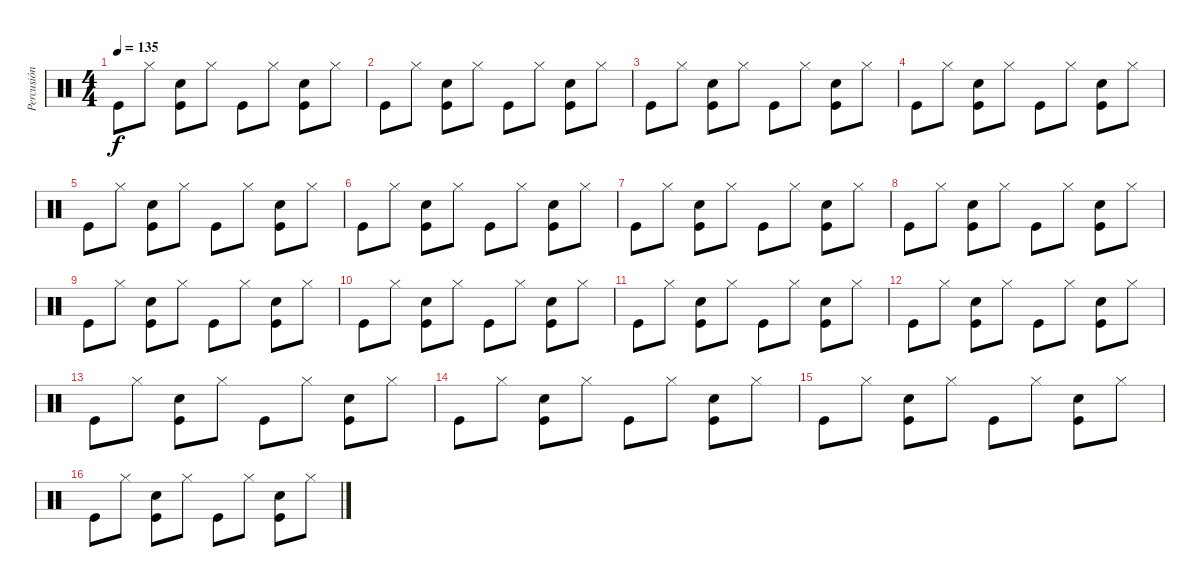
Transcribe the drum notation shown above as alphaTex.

\track ("Percusión" "Percusión") {instrument percussion}
\staff {score}
\articulation defaults
\ts (4 4)
\tempo 135
\clef neutral
\ks c "Kick (hit)".8{dy f} "Hi-Hat (closed)".8
("Hand Clap (hit)" "Kick (hit)").8 "Hi-Hat (closed)".8 "Kick (hit)".8 "Hi-Hat (closed)".8 ("Hand Clap (hit)" "Kick (hit)").8 "Hi-Hat (closed)".8 |
"Kick (hit)".8 "Hi-Hat (closed)".8 ("Hand Clap (hit)" "Kick (hit)").8 "Hi-Hat (closed)".8 "Kick (hit)".8 "Hi-Hat (closed)".8 ("Hand Clap (hit)" "Kick (hit)").8 "Hi-Hat (closed)".8 |
"Kick (hit)".8 "Hi-Hat (closed)".8 ("Hand Clap (hit)" "Kick (hit)").8 "Hi-Hat (closed)".8 "Kick (hit)".8 "Hi-Hat (closed)".8 ("Hand Clap (hit)" "Kick (hit)").8 "Hi-Hat (closed)".8 |
"Kick (hit)".8 "Hi-Hat (closed)".8 ("Hand Clap (hit)" "Kick (hit)").8 "Hi-Hat (closed)".8 "Kick (hit)".8 "Hi-Hat (closed)".8 ("Hand Clap (hit)" "Kick (hit)").8 "Hi-Hat (closed)".8 |
"Kick (hit)".8 "Hi-Hat (closed)".8 ("Hand Clap (hit)" "Kick (hit)").8 "Hi-Hat (closed)".8 "Kick (hit)".8 "Hi-Hat (closed)".8 ("Hand Clap (hit)" "Kick (hit)").8 "Hi-Hat (closed)".8 |
"Kick (hit)".8 "Hi-Hat (closed)".8 ("Hand Clap (hit)" "Kick (hit)").8 "Hi-Hat (closed)".8 "Kick (hit)".8 "Hi-Hat (closed)".8 ("Hand Clap (hit)" "Kick (hit)").8 "Hi-Hat (closed)".8 |
"Kick (hit)".8 "Hi-Hat (closed)".8 ("Hand Clap (hit)" "Kick (hit)").8 "Hi-Hat (closed)".8 "Kick (hit)".8 "Hi-Hat (closed)".8 ("Hand Clap (hit)" "Kick (hit)").8 "Hi-Hat (closed)".8 |
"Kick (hit)".8 "Hi-Hat (closed)".8 ("Hand Clap (hit)" "Kick (hit)").8 "Hi-Hat (closed)".8 "Kick (hit)".8 "Hi-Hat (closed)".8 ("Hand Clap (hit)" "Kick (hit)").8 "Hi-Hat (closed)".8 |
"Kick (hit)".8 "Hi-Hat (closed)".8 ("Hand Clap (hit)" "Kick (hit)").8 "Hi-Hat (closed)".8 "Kick (hit)".8 "Hi-Hat (closed)".8 ("Hand Clap (hit)" "Kick (hit)").8 "Hi-Hat (closed)".8 |
"Kick (hit)".8 "Hi-Hat (closed)".8 ("Hand Clap (hit)" "Kick (hit)").8 "Hi-Hat (closed)".8 "Kick (hit)".8 "Hi-Hat (closed)".8 ("Hand Clap (hit)" "Kick (hit)").8 "Hi-Hat (closed)".8 |
"Kick (hit)".8 "Hi-Hat (closed)".8 ("Hand Clap (hit)" "Kick (hit)").8 "Hi-Hat (closed)".8 "Kick (hit)".8 "Hi-Hat (closed)".8 ("Hand Clap (hit)" "Kick (hit)").8 "Hi-Hat (closed)".8 |
"Kick (hit)".8 "Hi-Hat (closed)".8 ("Hand Clap (hit)" "Kick (hit)").8 "Hi-Hat (closed)".8 "Kick (hit)".8 "Hi-Hat (closed)".8 ("Hand Clap (hit)" "Kick (hit)").8 "Hi-Hat (closed)".8 |
"Kick (hit)".8 "Hi-Hat (closed)".8 ("Hand Clap (hit)" "Kick (hit)").8 "Hi-Hat (closed)".8 "Kick (hit)".8 "Hi-Hat (closed)".8 ("Hand Clap (hit)" "Kick (hit)").8 "Hi-Hat (closed)".8 |
"Kick (hit)".8 "Hi-Hat (closed)".8 ("Hand Clap (hit)" "Kick (hit)").8 "Hi-Hat (closed)".8 "Kick (hit)".8 "Hi-Hat (closed)".8 ("Hand Clap (hit)" "Kick (hit)").8 "Hi-Hat (closed)".8 |
"Kick (hit)".8 "Hi-Hat (closed)".8 ("Hand Clap (hit)" "Kick (hit)").8 "Hi-Hat (closed)".8 "Kick (hit)".8 "Hi-Hat (closed)".8 ("Hand Clap (hit)" "Kick (hit)").8 "Hi-Hat (closed)".8 |
"Kick (hit)".8 "Hi-Hat (closed)".8 ("Hand Clap (hit)" "Kick (hit)").8 "Hi-Hat (closed)".8 "Kick (hit)".8 "Hi-Hat (closed)".8 ("Hand Clap (hit)" "Kick (hit)").8 "Hi-Hat (closed)".8
